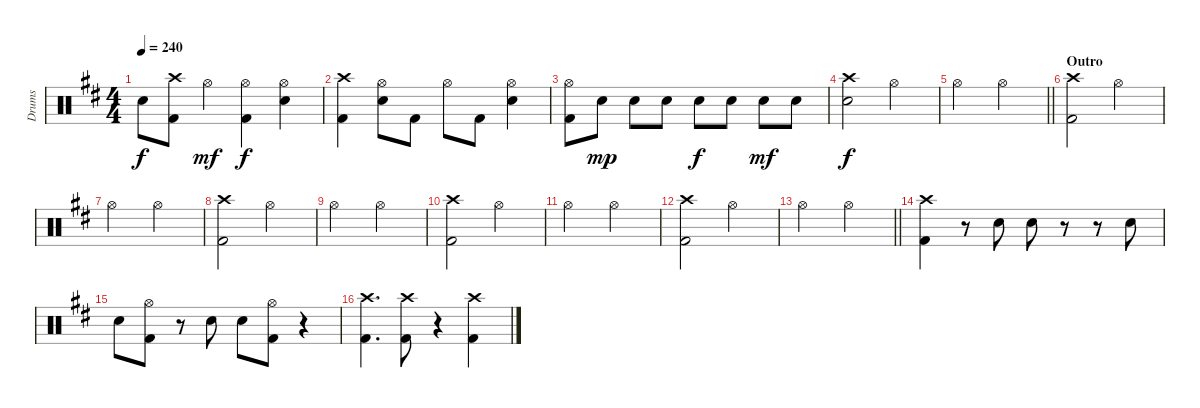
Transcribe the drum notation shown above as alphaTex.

\track ("Drums" "Drums") {instrument percussion}
\staff {score}
\articulation defaults
\ts (4 4)
\tempo 240
\clef neutral
\ks d "Electric Snare (hit)".8{dy f}
("Crash high (hit)" "Kick (hit) 2").8 "Hi-Hat (open)".4{dy mf} ("Hi-Hat (open)" "Kick (hit) 2").4{dy f} ("Hi-Hat (open)" "Electric Snare (hit)").4 |
("Crash high (hit)" "Kick (hit) 2").4 ("Hi-Hat (open)" "Electric Snare (hit)").8 "Kick (hit) 2".8 "Hi-Hat (open)".8 "Kick (hit) 2".8 ("Hi-Hat (open)" "Electric Snare (hit)").4 |
("Hi-Hat (open)" "Kick (hit) 2").8 "Electric Snare (hit)".8{dy mp} "Electric Snare (hit)".8 "Electric Snare (hit)".8 "Electric Snare (hit)".8{dy f} "Electric Snare (hit)".8 "Electric Snare (hit)".8{dy mf} "Electric Snare (hit)".8 |
("Crash high (hit)" "Hand Clap (hit)").2{dy f} "Hi-Hat (open)".2 |
\barLineRight lightlight "Hi-Hat (open)".2 "Hi-Hat (open)".2
|
\section ("" "Outro")
("Crash high (hit)" "Kick (hit) 2").2 "Hi-Hat (open)".2 |
"Hi-Hat (open)".2 "Hi-Hat (open)".2 |
("Crash high (hit)" "Kick (hit) 2").2 "Hi-Hat (open)".2 |
"Hi-Hat (open)".2 "Hi-Hat (open)".2 |
("Crash high (hit)" "Kick (hit) 2").2 "Hi-Hat (open)".2 |
"Hi-Hat (open)".2 "Hi-Hat (open)".2 |
("Crash high (hit)" "Kick (hit) 2").2 "Hi-Hat (open)".2 |
\barLineRight lightlight "Hi-Hat (open)".2 "Hi-Hat (open)".2
|
("Crash high (hit)" "Kick (hit) 2").4 r.8 "Electric Snare (hit)".8 "Electric Snare (hit)".8 r.8 r.8 "Electric Snare (hit)".8 |
"Electric Snare (hit)".8 ("Hi-Hat (open)" "Kick (hit) 2").8 r.8 "Electric Snare (hit)".8 "Electric Snare (hit)".8 ("Hi-Hat (open)" "Kick (hit) 2").8 r.4 |
("Crash high (hit)" "Kick (hit) 2").4{d} ("Crash high (hit)" "Kick (hit) 2").8 r.4 ("Crash high (hit)" "Kick (hit) 2").4
